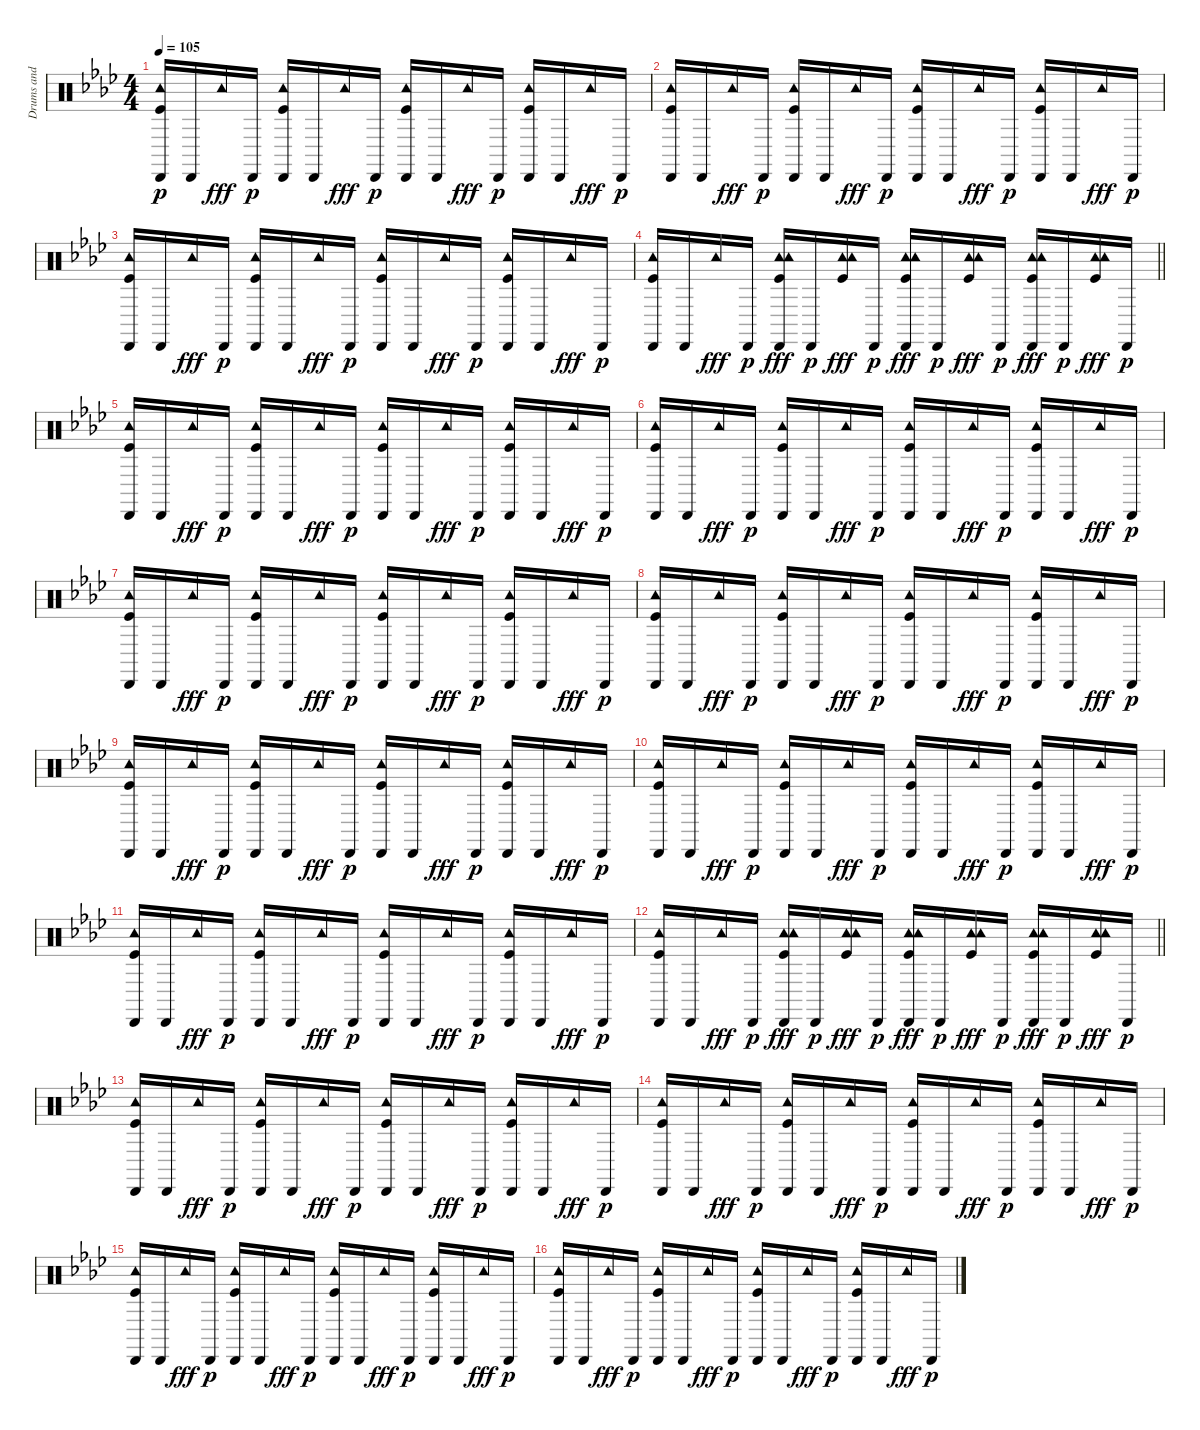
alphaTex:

\track ("Drums and percussion" "Drums and ") {instrument percussion}
\staff {score}
\articulation defaults
\ts (4 4)
\tempo 105
\clef neutral
\ks ab
("Cabasa (hit)" "Tambourine (hit)" "Kick (hit)").16{dy p} "Cabasa (hit)".16 "Tambourine (hit)".16{dy fff} "Cabasa (hit)".16{dy p} ("Cabasa (hit)" "Tambourine (hit)" "Kick (hit)").16 "Cabasa (hit)".16 "Tambourine (hit)".16{dy fff} "Cabasa (hit)".16{dy p} ("Cabasa (hit)" "Tambourine (hit)" "Kick (hit)").16 "Cabasa (hit)".16 "Tambourine (hit)".16{dy fff} "Cabasa (hit)".16{dy p} ("Cabasa (hit)" "Tambourine (hit)" "Kick (hit)").16 "Cabasa (hit)".16 "Tambourine (hit)".16{dy fff} "Cabasa (hit)".16{dy p} |
("Cabasa (hit)" "Tambourine (hit)" "Kick (hit)").16 "Cabasa (hit)".16 "Tambourine (hit)".16{dy fff} "Cabasa (hit)".16{dy p} ("Cabasa (hit)" "Tambourine (hit)" "Kick (hit)").16 "Cabasa (hit)".16 "Tambourine (hit)".16{dy fff} "Cabasa (hit)".16{dy p} ("Cabasa (hit)" "Tambourine (hit)" "Kick (hit)").16 "Cabasa (hit)".16 "Tambourine (hit)".16{dy fff} "Cabasa (hit)".16{dy p} ("Cabasa (hit)" "Tambourine (hit)" "Kick (hit)").16 "Cabasa (hit)".16 "Tambourine (hit)".16{dy fff} "Cabasa (hit)".16{dy p} |
("Cabasa (hit)" "Tambourine (hit)" "Kick (hit)").16 "Cabasa (hit)".16 "Tambourine (hit)".16{dy fff} "Cabasa (hit)".16{dy p} ("Cabasa (hit)" "Tambourine (hit)" "Kick (hit)").16 "Cabasa (hit)".16 "Tambourine (hit)".16{dy fff} "Cabasa (hit)".16{dy p} ("Cabasa (hit)" "Tambourine (hit)" "Kick (hit)").16 "Cabasa (hit)".16 "Tambourine (hit)".16{dy fff} "Cabasa (hit)".16{dy p} ("Cabasa (hit)" "Tambourine (hit)" "Kick (hit)").16 "Cabasa (hit)".16 "Tambourine (hit)".16{dy fff} "Cabasa (hit)".16{dy p} |
\barLineRight lightlight
("Cabasa (hit)" "Tambourine (hit)" "Kick (hit)").16 "Cabasa (hit)".16 "Tambourine (hit)".16{dy fff} "Cabasa (hit)".16{dy p} ("Cabasa (hit)" "Tambourine (hit)" "Tambourine (hit)" "Kick (hit)").16{dy fff} "Cabasa (hit)".16{dy p} ("Tambourine (hit)" "Tambourine (hit)" "Kick (hit)").16{dy fff} "Cabasa (hit)".16{dy p} ("Cabasa (hit)" "Tambourine (hit)" "Tambourine (hit)" "Kick (hit)").16{dy fff} "Cabasa (hit)".16{dy p} ("Tambourine (hit)" "Tambourine (hit)" "Kick (hit)").16{dy fff} "Cabasa (hit)".16{dy p} ("Cabasa (hit)" "Tambourine (hit)" "Tambourine (hit)" "Kick (hit)").16{dy fff} "Cabasa (hit)".16{dy p} ("Tambourine (hit)" "Tambourine (hit)" "Kick (hit)").16{dy fff} "Cabasa (hit)".16{dy p} |
("Cabasa (hit)" "Tambourine (hit)" "Kick (hit)").16 "Cabasa (hit)".16 "Tambourine (hit)".16{dy fff} "Cabasa (hit)".16{dy p} ("Cabasa (hit)" "Tambourine (hit)" "Kick (hit)").16 "Cabasa (hit)".16 "Tambourine (hit)".16{dy fff} "Cabasa (hit)".16{dy p} ("Cabasa (hit)" "Tambourine (hit)" "Kick (hit)").16 "Cabasa (hit)".16 "Tambourine (hit)".16{dy fff} "Cabasa (hit)".16{dy p} ("Cabasa (hit)" "Tambourine (hit)" "Kick (hit)").16 "Cabasa (hit)".16 "Tambourine (hit)".16{dy fff} "Cabasa (hit)".16{dy p} |
("Cabasa (hit)" "Tambourine (hit)" "Kick (hit)").16 "Cabasa (hit)".16 "Tambourine (hit)".16{dy fff} "Cabasa (hit)".16{dy p} ("Cabasa (hit)" "Tambourine (hit)" "Kick (hit)").16 "Cabasa (hit)".16 "Tambourine (hit)".16{dy fff} "Cabasa (hit)".16{dy p} ("Cabasa (hit)" "Tambourine (hit)" "Kick (hit)").16 "Cabasa (hit)".16 "Tambourine (hit)".16{dy fff} "Cabasa (hit)".16{dy p} ("Cabasa (hit)" "Tambourine (hit)" "Kick (hit)").16 "Cabasa (hit)".16 "Tambourine (hit)".16{dy fff} "Cabasa (hit)".16{dy p} |
("Cabasa (hit)" "Tambourine (hit)" "Kick (hit)").16 "Cabasa (hit)".16 "Tambourine (hit)".16{dy fff} "Cabasa (hit)".16{dy p} ("Cabasa (hit)" "Tambourine (hit)" "Kick (hit)").16 "Cabasa (hit)".16 "Tambourine (hit)".16{dy fff} "Cabasa (hit)".16{dy p} ("Cabasa (hit)" "Tambourine (hit)" "Kick (hit)").16 "Cabasa (hit)".16 "Tambourine (hit)".16{dy fff} "Cabasa (hit)".16{dy p} ("Cabasa (hit)" "Tambourine (hit)" "Kick (hit)").16 "Cabasa (hit)".16 "Tambourine (hit)".16{dy fff} "Cabasa (hit)".16{dy p} |
("Cabasa (hit)" "Tambourine (hit)" "Kick (hit)").16 "Cabasa (hit)".16 "Tambourine (hit)".16{dy fff} "Cabasa (hit)".16{dy p} ("Cabasa (hit)" "Tambourine (hit)" "Kick (hit)").16 "Cabasa (hit)".16 "Tambourine (hit)".16{dy fff} "Cabasa (hit)".16{dy p} ("Cabasa (hit)" "Tambourine (hit)" "Kick (hit)").16 "Cabasa (hit)".16 "Tambourine (hit)".16{dy fff} "Cabasa (hit)".16{dy p} ("Cabasa (hit)" "Tambourine (hit)" "Kick (hit)").16 "Cabasa (hit)".16 "Tambourine (hit)".16{dy fff} "Cabasa (hit)".16{dy p} |
("Cabasa (hit)" "Tambourine (hit)" "Kick (hit)").16 "Cabasa (hit)".16 "Tambourine (hit)".16{dy fff} "Cabasa (hit)".16{dy p} ("Cabasa (hit)" "Tambourine (hit)" "Kick (hit)").16 "Cabasa (hit)".16 "Tambourine (hit)".16{dy fff} "Cabasa (hit)".16{dy p} ("Cabasa (hit)" "Tambourine (hit)" "Kick (hit)").16 "Cabasa (hit)".16 "Tambourine (hit)".16{dy fff} "Cabasa (hit)".16{dy p} ("Cabasa (hit)" "Tambourine (hit)" "Kick (hit)").16 "Cabasa (hit)".16 "Tambourine (hit)".16{dy fff} "Cabasa (hit)".16{dy p} |
("Cabasa (hit)" "Tambourine (hit)" "Kick (hit)").16 "Cabasa (hit)".16 "Tambourine (hit)".16{dy fff} "Cabasa (hit)".16{dy p} ("Cabasa (hit)" "Tambourine (hit)" "Kick (hit)").16 "Cabasa (hit)".16 "Tambourine (hit)".16{dy fff} "Cabasa (hit)".16{dy p} ("Cabasa (hit)" "Tambourine (hit)" "Kick (hit)").16 "Cabasa (hit)".16 "Tambourine (hit)".16{dy fff} "Cabasa (hit)".16{dy p} ("Cabasa (hit)" "Tambourine (hit)" "Kick (hit)").16 "Cabasa (hit)".16 "Tambourine (hit)".16{dy fff} "Cabasa (hit)".16{dy p} |
("Cabasa (hit)" "Tambourine (hit)" "Kick (hit)").16 "Cabasa (hit)".16 "Tambourine (hit)".16{dy fff} "Cabasa (hit)".16{dy p} ("Cabasa (hit)" "Tambourine (hit)" "Kick (hit)").16 "Cabasa (hit)".16 "Tambourine (hit)".16{dy fff} "Cabasa (hit)".16{dy p} ("Cabasa (hit)" "Tambourine (hit)" "Kick (hit)").16 "Cabasa (hit)".16 "Tambourine (hit)".16{dy fff} "Cabasa (hit)".16{dy p} ("Cabasa (hit)" "Tambourine (hit)" "Kick (hit)").16 "Cabasa (hit)".16 "Tambourine (hit)".16{dy fff} "Cabasa (hit)".16{dy p} |
\barLineRight lightlight
("Cabasa (hit)" "Tambourine (hit)" "Kick (hit)").16 "Cabasa (hit)".16 "Tambourine (hit)".16{dy fff} "Cabasa (hit)".16{dy p} ("Cabasa (hit)" "Tambourine (hit)" "Tambourine (hit)" "Kick (hit)").16{dy fff} "Cabasa (hit)".16{dy p} ("Tambourine (hit)" "Tambourine (hit)" "Kick (hit)").16{dy fff} "Cabasa (hit)".16{dy p} ("Cabasa (hit)" "Tambourine (hit)" "Tambourine (hit)" "Kick (hit)").16{dy fff} "Cabasa (hit)".16{dy p} ("Tambourine (hit)" "Tambourine (hit)" "Kick (hit)").16{dy fff} "Cabasa (hit)".16{dy p} ("Cabasa (hit)" "Tambourine (hit)" "Tambourine (hit)" "Kick (hit)").16{dy fff} "Cabasa (hit)".16{dy p} ("Tambourine (hit)" "Tambourine (hit)" "Kick (hit)").16{dy fff} "Cabasa (hit)".16{dy p} |
("Cabasa (hit)" "Tambourine (hit)" "Kick (hit)").16 "Cabasa (hit)".16 "Tambourine (hit)".16{dy fff} "Cabasa (hit)".16{dy p} ("Cabasa (hit)" "Tambourine (hit)" "Kick (hit)").16 "Cabasa (hit)".16 "Tambourine (hit)".16{dy fff} "Cabasa (hit)".16{dy p} ("Cabasa (hit)" "Tambourine (hit)" "Kick (hit)").16 "Cabasa (hit)".16 "Tambourine (hit)".16{dy fff} "Cabasa (hit)".16{dy p} ("Cabasa (hit)" "Tambourine (hit)" "Kick (hit)").16 "Cabasa (hit)".16 "Tambourine (hit)".16{dy fff} "Cabasa (hit)".16{dy p} |
("Cabasa (hit)" "Tambourine (hit)" "Kick (hit)").16 "Cabasa (hit)".16 "Tambourine (hit)".16{dy fff} "Cabasa (hit)".16{dy p} ("Cabasa (hit)" "Tambourine (hit)" "Kick (hit)").16 "Cabasa (hit)".16 "Tambourine (hit)".16{dy fff} "Cabasa (hit)".16{dy p} ("Cabasa (hit)" "Tambourine (hit)" "Kick (hit)").16 "Cabasa (hit)".16 "Tambourine (hit)".16{dy fff} "Cabasa (hit)".16{dy p} ("Cabasa (hit)" "Tambourine (hit)" "Kick (hit)").16 "Cabasa (hit)".16 "Tambourine (hit)".16{dy fff} "Cabasa (hit)".16{dy p} |
("Cabasa (hit)" "Tambourine (hit)" "Kick (hit)").16 "Cabasa (hit)".16 "Tambourine (hit)".16{dy fff} "Cabasa (hit)".16{dy p} ("Cabasa (hit)" "Tambourine (hit)" "Kick (hit)").16 "Cabasa (hit)".16 "Tambourine (hit)".16{dy fff} "Cabasa (hit)".16{dy p} ("Cabasa (hit)" "Tambourine (hit)" "Kick (hit)").16 "Cabasa (hit)".16 "Tambourine (hit)".16{dy fff} "Cabasa (hit)".16{dy p} ("Cabasa (hit)" "Tambourine (hit)" "Kick (hit)").16 "Cabasa (hit)".16 "Tambourine (hit)".16{dy fff} "Cabasa (hit)".16{dy p} |
("Cabasa (hit)" "Tambourine (hit)" "Kick (hit)").16 "Cabasa (hit)".16 "Tambourine (hit)".16{dy fff} "Cabasa (hit)".16{dy p} ("Cabasa (hit)" "Tambourine (hit)" "Kick (hit)").16 "Cabasa (hit)".16 "Tambourine (hit)".16{dy fff} "Cabasa (hit)".16{dy p} ("Cabasa (hit)" "Tambourine (hit)" "Kick (hit)").16 "Cabasa (hit)".16 "Tambourine (hit)".16{dy fff} "Cabasa (hit)".16{dy p} ("Cabasa (hit)" "Tambourine (hit)" "Kick (hit)").16 "Cabasa (hit)".16 "Tambourine (hit)".16{dy fff} "Cabasa (hit)".16{dy p}
